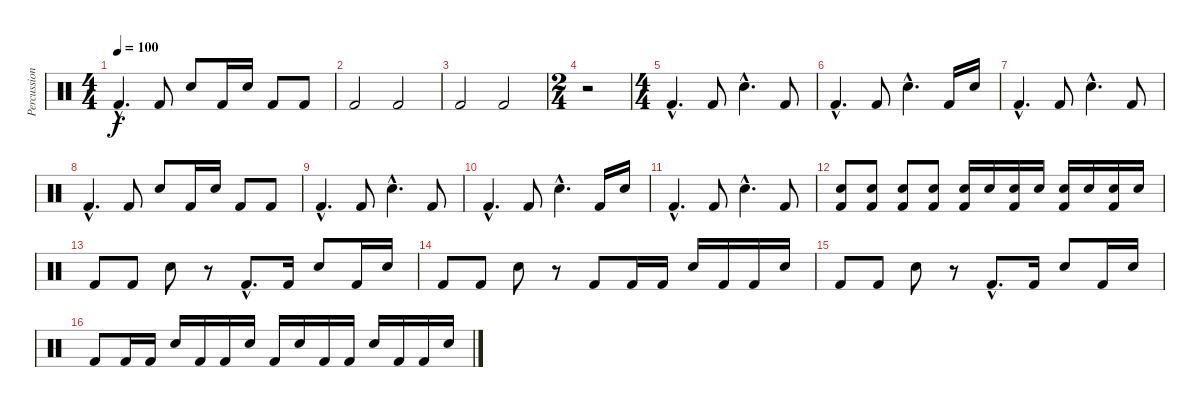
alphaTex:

\track ("Percussioni" "Percussion") {instrument percussion}
\staff {score}
\articulation defaults
\ts (4 4)
\tempo 100
\clef neutral
\ks c "Kick (hit) 2"{hac}.4{d dy f} "Kick (hit) 2".8 "Snare (hit) 2".8 "Kick (hit) 2".16 "Snare (hit) 2".16 "Kick (hit) 2".8 "Kick (hit) 2".8
|
"Kick (hit) 2".2 "Kick (hit) 2".2 |
"Kick (hit) 2".2 "Kick (hit) 2".2 |
\ts (2 4)
r.2 |
\ts (4 4)
"Kick (hit) 2"{hac}.4{d} "Kick (hit) 2".8 "Snare (hit) 2"{hac}.4{d} "Kick (hit) 2".8 |
"Kick (hit) 2"{hac}.4{d} "Kick (hit) 2".8 "Snare (hit) 2"{hac}.4{d} "Kick (hit) 2".16 "Snare (hit) 2".16 |
"Kick (hit) 2"{hac}.4{d} "Kick (hit) 2".8 "Snare (hit) 2"{hac}.4{d} "Kick (hit) 2".8 |
"Kick (hit) 2"{hac}.4{d} "Kick (hit) 2".8 "Snare (hit) 2".8 "Kick (hit) 2".16 "Snare (hit) 2".16 "Kick (hit) 2".8 "Kick (hit) 2".8 |
"Kick (hit) 2"{hac}.4{d} "Kick (hit) 2".8 "Snare (hit) 2"{hac}.4{d} "Kick (hit) 2".8 |
"Kick (hit) 2"{hac}.4{d} "Kick (hit) 2".8 "Snare (hit) 2"{hac}.4{d} "Kick (hit) 2".16 "Snare (hit) 2".16 |
"Kick (hit) 2"{hac}.4{d} "Kick (hit) 2".8 "Snare (hit) 2"{hac}.4{d} "Kick (hit) 2".8 |
("Snare (hit) 2" "Kick (hit) 2").8 ("Snare (hit) 2" "Kick (hit) 2").8 ("Snare (hit) 2" "Kick (hit) 2").8 ("Snare (hit) 2" "Kick (hit) 2").8 ("Snare (hit) 2" "Kick (hit) 2").16 "Snare (hit) 2".16 ("Snare (hit) 2" "Kick (hit) 2").16 "Snare (hit) 2".16 ("Snare (hit) 2" "Kick (hit) 2").16 "Snare (hit) 2".16 ("Snare (hit) 2" "Kick (hit) 2").16 "Snare (hit) 2".16 |
"Kick (hit) 2".8 "Kick (hit) 2".8 "Snare (hit) 2".8 r.8 "Kick (hit) 2"{hac}.8{d} "Kick (hit) 2".16 "Snare (hit) 2".8 "Kick (hit) 2".16 "Snare (hit) 2".16 |
"Kick (hit) 2".8 "Kick (hit) 2".8 "Snare (hit) 2".8 r.8 "Kick (hit) 2".8 "Kick (hit) 2".16 "Kick (hit) 2".16 "Snare (hit) 2".16 "Kick (hit) 2".16 "Kick (hit) 2".16 "Snare (hit) 2".16 |
"Kick (hit) 2".8 "Kick (hit) 2".8 "Snare (hit) 2".8 r.8 "Kick (hit) 2"{hac}.8{d} "Kick (hit) 2".16 "Snare (hit) 2".8 "Kick (hit) 2".16 "Snare (hit) 2".16 |
"Kick (hit) 2".8 "Kick (hit) 2".16 "Kick (hit) 2".16 "Snare (hit) 2".16 "Kick (hit) 2".16 "Kick (hit) 2".16 "Snare (hit) 2".16 "Kick (hit) 2".16 "Snare (hit) 2".16 "Kick (hit) 2".16 "Kick (hit) 2".16 "Snare (hit) 2".16 "Kick (hit) 2".16 "Kick (hit) 2".16 "Snare (hit) 2".16
